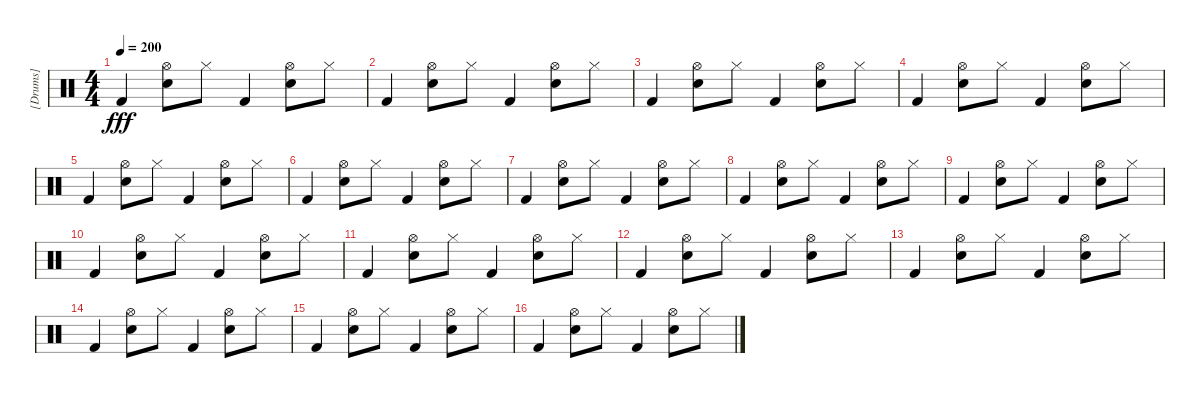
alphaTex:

\track ("[Drums]" "[Drums]") {instrument percussion}
\staff {score}
\articulation defaults
\ts (4 4)
\tempo 200
\clef neutral
\ks c "Kick (hit) 2".4{dy fff}
("Hi-Hat (open)" "Electric Snare (hit)").8 "Hi-Hat (closed)".8 "Kick (hit) 2".4 ("Hi-Hat (open)" "Electric Snare (hit)").8 "Hi-Hat (closed)".8 |
"Kick (hit) 2".4 ("Hi-Hat (open)" "Electric Snare (hit)").8 "Hi-Hat (closed)".8 "Kick (hit) 2".4 ("Hi-Hat (open)" "Electric Snare (hit)").8 "Hi-Hat (closed)".8 |
"Kick (hit) 2".4 ("Hi-Hat (open)" "Electric Snare (hit)").8 "Hi-Hat (closed)".8 "Kick (hit) 2".4 ("Hi-Hat (open)" "Electric Snare (hit)").8 "Hi-Hat (closed)".8 |
"Kick (hit) 2".4 ("Hi-Hat (open)" "Electric Snare (hit)").8 "Hi-Hat (closed)".8 "Kick (hit) 2".4 ("Hi-Hat (open)" "Electric Snare (hit)").8 "Hi-Hat (closed)".8 |
"Kick (hit) 2".4 ("Hi-Hat (open)" "Electric Snare (hit)").8 "Hi-Hat (closed)".8 "Kick (hit) 2".4 ("Hi-Hat (open)" "Electric Snare (hit)").8 "Hi-Hat (closed)".8 |
"Kick (hit) 2".4 ("Hi-Hat (open)" "Electric Snare (hit)").8 "Hi-Hat (closed)".8 "Kick (hit) 2".4 ("Hi-Hat (open)" "Electric Snare (hit)").8 "Hi-Hat (closed)".8 |
"Kick (hit) 2".4 ("Hi-Hat (open)" "Electric Snare (hit)").8 "Hi-Hat (closed)".8 "Kick (hit) 2".4 ("Hi-Hat (open)" "Electric Snare (hit)").8 "Hi-Hat (closed)".8 |
"Kick (hit) 2".4 ("Hi-Hat (open)" "Electric Snare (hit)").8 "Hi-Hat (closed)".8 "Kick (hit) 2".4 ("Hi-Hat (open)" "Electric Snare (hit)").8 "Hi-Hat (closed)".8 |
"Kick (hit) 2".4 ("Hi-Hat (open)" "Electric Snare (hit)").8 "Hi-Hat (closed)".8 "Kick (hit) 2".4 ("Hi-Hat (open)" "Electric Snare (hit)").8 "Hi-Hat (closed)".8 |
"Kick (hit) 2".4 ("Hi-Hat (open)" "Electric Snare (hit)").8 "Hi-Hat (closed)".8 "Kick (hit) 2".4 ("Hi-Hat (open)" "Electric Snare (hit)").8 "Hi-Hat (closed)".8 |
"Kick (hit) 2".4 ("Hi-Hat (open)" "Electric Snare (hit)").8 "Hi-Hat (closed)".8 "Kick (hit) 2".4 ("Hi-Hat (open)" "Electric Snare (hit)").8 "Hi-Hat (closed)".8 |
"Kick (hit) 2".4 ("Hi-Hat (open)" "Electric Snare (hit)").8 "Hi-Hat (closed)".8 "Kick (hit) 2".4 ("Hi-Hat (open)" "Electric Snare (hit)").8 "Hi-Hat (closed)".8 |
"Kick (hit) 2".4 ("Hi-Hat (open)" "Electric Snare (hit)").8 "Hi-Hat (closed)".8 "Kick (hit) 2".4 ("Hi-Hat (open)" "Electric Snare (hit)").8 "Hi-Hat (closed)".8 |
"Kick (hit) 2".4 ("Hi-Hat (open)" "Electric Snare (hit)").8 "Hi-Hat (closed)".8 "Kick (hit) 2".4 ("Hi-Hat (open)" "Electric Snare (hit)").8 "Hi-Hat (closed)".8 |
"Kick (hit) 2".4 ("Hi-Hat (open)" "Electric Snare (hit)").8 "Hi-Hat (closed)".8 "Kick (hit) 2".4 ("Hi-Hat (open)" "Electric Snare (hit)").8 "Hi-Hat (closed)".8 |
"Kick (hit) 2".4 ("Hi-Hat (open)" "Electric Snare (hit)").8 "Hi-Hat (closed)".8 "Kick (hit) 2".4 ("Hi-Hat (open)" "Electric Snare (hit)").8 "Hi-Hat (closed)".8
